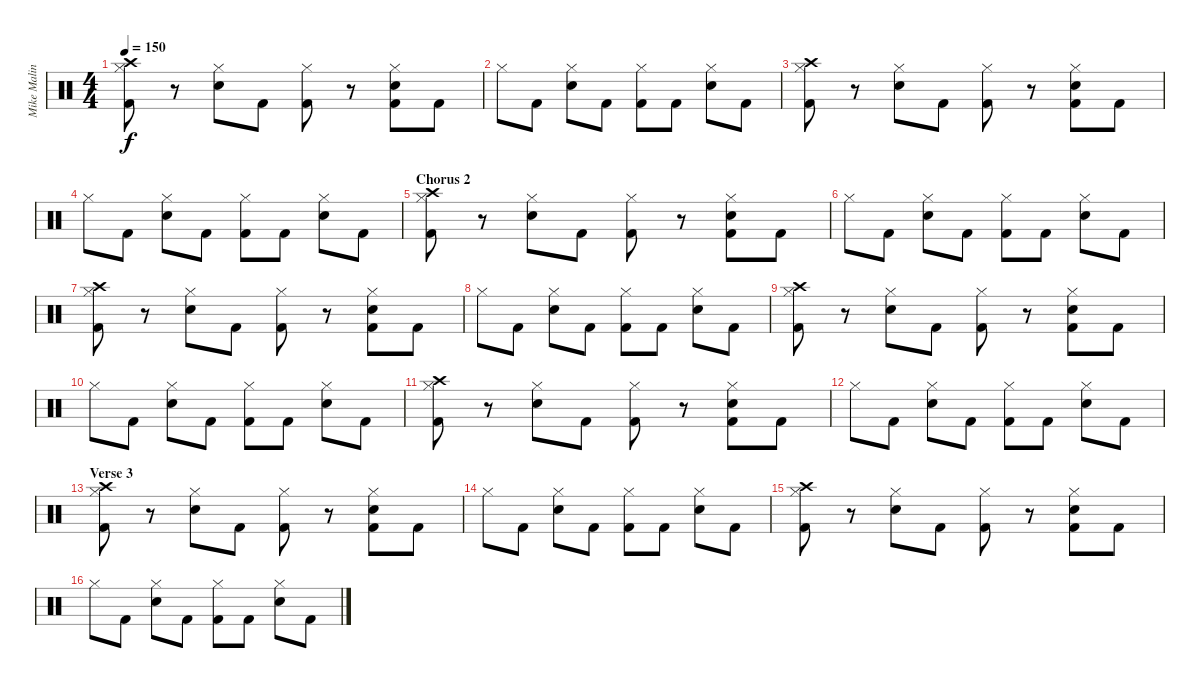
\track ("Mike Malinin - Drums" "Mike Malin") {instrument percussion}
\staff {score}
\articulation defaults
\ts (4 4)
\tempo 150
\clef neutral
\ks c
("Crash high (hit)" "Hi-Hat (closed)" "Kick (hit) 2").8{dy f} r.8 ("Hi-Hat (closed)" "Snare (hit) 2").8 "Kick (hit) 2".8 ("Hi-Hat (closed)" "Kick (hit) 2").8 r.8 ("Hi-Hat (closed)" "Snare (hit) 2" "Kick (hit) 2").8 "Kick (hit) 2".8 |
"Hi-Hat (closed)".8 "Kick (hit) 2".8 ("Hi-Hat (closed)" "Snare (hit) 2").8 "Kick (hit) 2".8 ("Hi-Hat (closed)" "Kick (hit) 2").8 "Kick (hit) 2".8 ("Hi-Hat (closed)" "Snare (hit) 2").8 "Kick (hit) 2".8 |
("Crash high (hit)" "Hi-Hat (closed)" "Kick (hit) 2").8 r.8 ("Hi-Hat (closed)" "Snare (hit) 2").8 "Kick (hit) 2".8 ("Hi-Hat (closed)" "Kick (hit) 2").8 r.8 ("Hi-Hat (closed)" "Snare (hit) 2" "Kick (hit) 2").8 "Kick (hit) 2".8 |
"Hi-Hat (closed)".8 "Kick (hit) 2".8 ("Hi-Hat (closed)" "Snare (hit) 2").8 "Kick (hit) 2".8 ("Hi-Hat (closed)" "Kick (hit) 2").8 "Kick (hit) 2".8 ("Hi-Hat (closed)" "Snare (hit) 2").8 "Kick (hit) 2".8 |
\section ("" "Chorus 2")
("Crash high (hit)" "Hi-Hat (closed)" "Kick (hit) 2").8 r.8 ("Hi-Hat (closed)" "Snare (hit) 2").8 "Kick (hit) 2".8 ("Hi-Hat (closed)" "Kick (hit) 2").8 r.8 ("Hi-Hat (closed)" "Snare (hit) 2" "Kick (hit) 2").8 "Kick (hit) 2".8 |
"Hi-Hat (closed)".8 "Kick (hit) 2".8 ("Hi-Hat (closed)" "Snare (hit) 2").8 "Kick (hit) 2".8 ("Hi-Hat (closed)" "Kick (hit) 2").8 "Kick (hit) 2".8 ("Hi-Hat (closed)" "Snare (hit) 2").8 "Kick (hit) 2".8 |
("Crash high (hit)" "Hi-Hat (closed)" "Kick (hit) 2").8 r.8 ("Hi-Hat (closed)" "Snare (hit) 2").8 "Kick (hit) 2".8 ("Hi-Hat (closed)" "Kick (hit) 2").8 r.8 ("Hi-Hat (closed)" "Snare (hit) 2" "Kick (hit) 2").8 "Kick (hit) 2".8 |
"Hi-Hat (closed)".8 "Kick (hit) 2".8 ("Hi-Hat (closed)" "Snare (hit) 2").8 "Kick (hit) 2".8 ("Hi-Hat (closed)" "Kick (hit) 2").8 "Kick (hit) 2".8 ("Hi-Hat (closed)" "Snare (hit) 2").8 "Kick (hit) 2".8 |
("Crash high (hit)" "Hi-Hat (closed)" "Kick (hit) 2").8 r.8 ("Hi-Hat (closed)" "Snare (hit) 2").8 "Kick (hit) 2".8 ("Hi-Hat (closed)" "Kick (hit) 2").8 r.8 ("Hi-Hat (closed)" "Snare (hit) 2" "Kick (hit) 2").8 "Kick (hit) 2".8 |
"Hi-Hat (closed)".8 "Kick (hit) 2".8 ("Hi-Hat (closed)" "Snare (hit) 2").8 "Kick (hit) 2".8 ("Hi-Hat (closed)" "Kick (hit) 2").8 "Kick (hit) 2".8 ("Hi-Hat (closed)" "Snare (hit) 2").8 "Kick (hit) 2".8 |
("Crash high (hit)" "Hi-Hat (closed)" "Kick (hit) 2").8 r.8 ("Hi-Hat (closed)" "Snare (hit) 2").8 "Kick (hit) 2".8 ("Hi-Hat (closed)" "Kick (hit) 2").8 r.8 ("Hi-Hat (closed)" "Snare (hit) 2" "Kick (hit) 2").8 "Kick (hit) 2".8 |
"Hi-Hat (closed)".8 "Kick (hit) 2".8 ("Hi-Hat (closed)" "Snare (hit) 2").8 "Kick (hit) 2".8 ("Hi-Hat (closed)" "Kick (hit) 2").8 "Kick (hit) 2".8 ("Hi-Hat (closed)" "Snare (hit) 2").8 "Kick (hit) 2".8 |
\section ("" "Verse 3")
("Crash high (hit)" "Hi-Hat (closed)" "Kick (hit) 2").8 r.8 ("Hi-Hat (closed)" "Snare (hit) 2").8 "Kick (hit) 2".8 ("Hi-Hat (closed)" "Kick (hit) 2").8 r.8 ("Hi-Hat (closed)" "Snare (hit) 2" "Kick (hit) 2").8 "Kick (hit) 2".8 |
"Hi-Hat (closed)".8 "Kick (hit) 2".8 ("Hi-Hat (closed)" "Snare (hit) 2").8 "Kick (hit) 2".8 ("Hi-Hat (closed)" "Kick (hit) 2").8 "Kick (hit) 2".8 ("Hi-Hat (closed)" "Snare (hit) 2").8 "Kick (hit) 2".8 |
("Crash high (hit)" "Hi-Hat (closed)" "Kick (hit) 2").8 r.8 ("Hi-Hat (closed)" "Snare (hit) 2").8 "Kick (hit) 2".8 ("Hi-Hat (closed)" "Kick (hit) 2").8 r.8 ("Hi-Hat (closed)" "Snare (hit) 2" "Kick (hit) 2").8 "Kick (hit) 2".8 |
"Hi-Hat (closed)".8 "Kick (hit) 2".8 ("Hi-Hat (closed)" "Snare (hit) 2").8 "Kick (hit) 2".8 ("Hi-Hat (closed)" "Kick (hit) 2").8 "Kick (hit) 2".8 ("Hi-Hat (closed)" "Snare (hit) 2").8 "Kick (hit) 2".8
